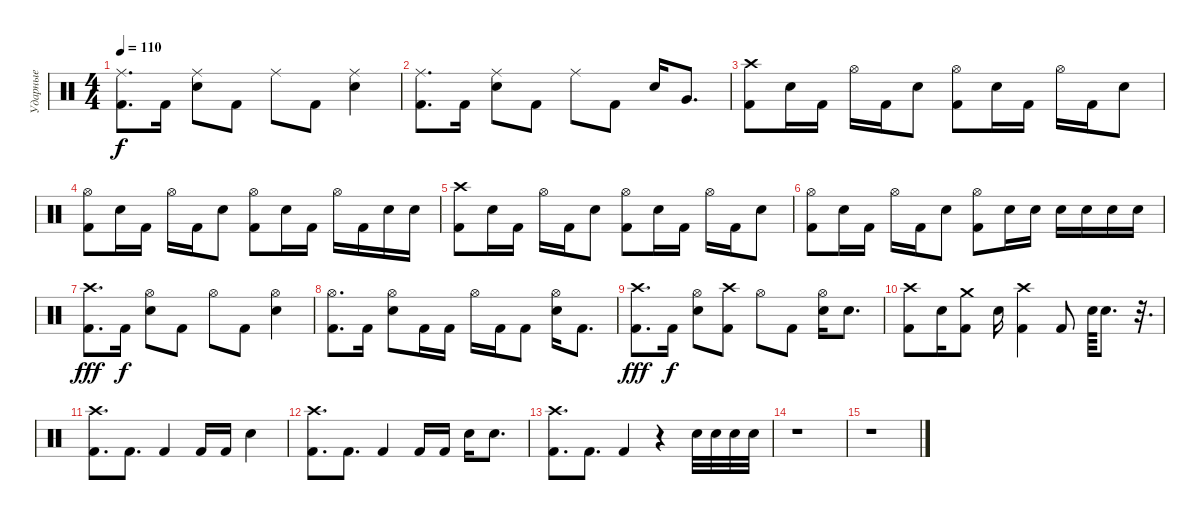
\track ("Ударные" "Ударные") {instrument percussion}
\staff {score}
\articulation defaults
\ts (4 4)
\tempo 110
\clef neutral
\ks c
("Kick (hit) 2" "Ride (middle)").8{d dy f} "Kick (hit) 2".16 ("Electric Snare (hit)" "Ride (middle)").8 "Kick (hit) 2".8 "Ride (middle)".8 "Kick (hit) 2".8 ("Electric Snare (hit)" "Ride (middle)").4 |
("Kick (hit) 2" "Ride (middle)").8{d} "Kick (hit) 2".16 ("Electric Snare (hit)" "Ride (middle)").8 "Kick (hit) 2".8 "Ride (middle)".8 "Kick (hit) 2".8 "Electric Snare (hit)".16 "Very Low Tom (hit)".8{d} |
("Crash high (hit)" "Kick (hit) 2").8 "Electric Snare (hit)".16 "Kick (hit) 2".16 "Hi-Hat (open)".16 "Kick (hit) 2".16 "Electric Snare (hit)".8 ("Kick (hit) 2" "Hi-Hat (open)").8 "Electric Snare (hit)".16 "Kick (hit) 2".16 "Hi-Hat (open)".16 "Kick (hit) 2".16 "Electric Snare (hit)".8 |
("Kick (hit) 2" "Hi-Hat (open)").8 "Electric Snare (hit)".16 "Kick (hit) 2".16 "Hi-Hat (open)".16 "Kick (hit) 2".16 "Electric Snare (hit)".8 ("Kick (hit) 2" "Hi-Hat (open)").8 "Electric Snare (hit)".16 "Kick (hit) 2".16 "Hi-Hat (open)".16 "Kick (hit) 2".16 "Electric Snare (hit)".16 "Electric Snare (hit)".16 |
("Crash high (hit)" "Kick (hit) 2").8 "Electric Snare (hit)".16 "Kick (hit) 2".16 "Hi-Hat (open)".16 "Kick (hit) 2".16 "Electric Snare (hit)".8 ("Kick (hit) 2" "Hi-Hat (open)").8 "Electric Snare (hit)".16 "Kick (hit) 2".16 "Hi-Hat (open)".16 "Kick (hit) 2".16 "Electric Snare (hit)".8 |
("Kick (hit) 2" "Hi-Hat (open)").8 "Electric Snare (hit)".16 "Kick (hit) 2".16 "Hi-Hat (open)".16 "Kick (hit) 2".16 "Electric Snare (hit)".8 ("Kick (hit) 2" "Hi-Hat (open)").8 "Electric Snare (hit)".16 "Electric Snare (hit)".16 "Electric Snare (hit)".16 "Electric Snare (hit)".16 "Electric Snare (hit)".16 "Electric Snare (hit)".16 |
("Crash high (hit)" "Kick (hit) 2").8{d dy fff} "Kick (hit) 2".16{dy f} ("Electric Snare (hit)" "Hi-Hat (open)").8 "Kick (hit) 2".8 "Hi-Hat (open)".8 "Kick (hit) 2".8 ("Electric Snare (hit)" "Hi-Hat (open)").4 |
("Kick (hit) 2" "Hi-Hat (open)").8{d} "Kick (hit) 2".16 ("Electric Snare (hit)" "Hi-Hat (open)").8 "Kick (hit) 2".16 "Kick (hit) 2".16 "Hi-Hat (open)".16 "Kick (hit) 2".16 "Kick (hit) 2".8 ("Electric Snare (hit)" "Hi-Hat (open)").16 "Kick (hit) 2".8{d} |
("Crash high (hit)" "Kick (hit) 2").8{d dy fff} "Kick (hit) 2".16{dy f} ("Electric Snare (hit)" "Hi-Hat (open)").8 ("Crash high (hit)" "Kick (hit) 2").8 "Hi-Hat (open)".8 "Kick (hit) 2".8 ("Electric Snare (hit)" "Hi-Hat (open)").16 "Electric Snare (hit)".8{d} |
("Crash high (hit)" "Kick (hit) 2").8 "Electric Snare (hit)".16 ("Crash medium (hit)" "Kick (hit) 2").8 "Electric Snare (hit)".16 ("Crash high (hit)" "Kick (hit) 2").4 "Kick (hit) 2".8 "Electric Snare (hit)".64 "Electric Snare (hit)".8{d} r.32{d} |
("Crash high (hit)" "Kick (hit) 2").8{d} "Kick (hit) 2".8{d} "Kick (hit) 2".4 "Kick (hit) 2".16 "Kick (hit) 2".16 "Electric Snare (hit)".4 |
("Crash high (hit)" "Kick (hit) 2").8{d} "Kick (hit) 2".8{d} "Kick (hit) 2".4 "Kick (hit) 2".16 "Kick (hit) 2".16 "Electric Snare (hit)".16 "Electric Snare (hit)".8{d} |
("Crash high (hit)" "Kick (hit) 2").8{d} "Kick (hit) 2".8{d} "Kick (hit) 2".4 r.4 "Electric Snare (hit)".32 "Electric Snare (hit)".32 "Electric Snare (hit)".32 "Electric Snare (hit)".32 |
r.1 |
r.1
